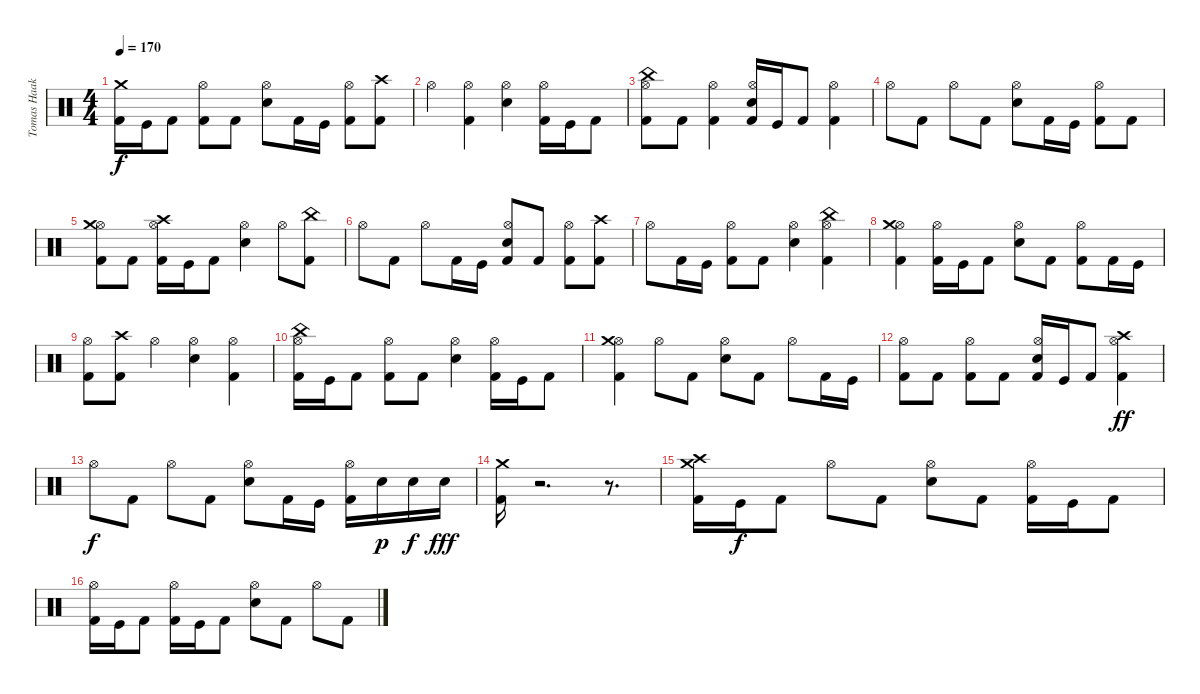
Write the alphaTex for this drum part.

\track ("Tomas Haake" "Tomas Haak") {instrument percussion}
\staff {score}
\articulation defaults
\ts (4 4)
\tempo 170
\clef neutral
\ks c
("Kick (hit) 2" "Crash medium (hit)").16{dy f} "Kick (hit)".16 "Kick (hit) 2".8 ("Kick (hit) 2" "Hi-Hat (open)").8 "Kick (hit) 2".8 ("Snare (hit) 2" "Hi-Hat (open)").8 "Kick (hit) 2".16 "Kick (hit)".16 ("Kick (hit) 2" "Hi-Hat (open)").8 ("Kick (hit) 2" "Crash high (hit)").8 |
"Hi-Hat (open)".4 ("Kick (hit) 2" "Hi-Hat (open)").4 ("Snare (hit) 2" "Hi-Hat (open)").4 ("Kick (hit) 2" "Hi-Hat (open)").16 "Kick (hit)".16 "Kick (hit) 2".8 |
("Kick (hit) 2" "Hi-Hat (open)" "China (hit)").8 "Kick (hit) 2".8 ("Kick (hit) 2" "Hi-Hat (open)").4 ("Kick (hit) 2" "Snare (hit) 2" "Hi-Hat (open)").16 "Kick (hit)".16 "Kick (hit) 2".8 ("Kick (hit) 2" "Hi-Hat (open)").4 |
"Hi-Hat (open)".8 "Kick (hit) 2".8 "Hi-Hat (open)".8 "Kick (hit) 2".8 ("Snare (hit) 2" "Hi-Hat (open)").8 "Kick (hit) 2".16 "Kick (hit)".16 ("Kick (hit) 2" "Hi-Hat (open)").8 "Kick (hit) 2".8 |
("Kick (hit) 2" "Hi-Hat (open)" "Crash medium (hit)").8 "Kick (hit) 2".8 ("Kick (hit) 2" "Hi-Hat (open)" "Crash high (hit)").16 "Kick (hit)".16 "Kick (hit) 2".8 ("Snare (hit) 2" "Hi-Hat (open)").4 "Hi-Hat (open)".8 ("Kick (hit) 2" "China (hit)").8 |
"Hi-Hat (open)".8 "Kick (hit) 2".8 "Hi-Hat (open)".8 "Kick (hit) 2".16 "Kick (hit)".16 ("Kick (hit) 2" "Snare (hit) 2" "Hi-Hat (open)").8 "Kick (hit) 2".8 ("Kick (hit) 2" "Hi-Hat (open)").8 ("Kick (hit) 2" "Crash high (hit)").8 |
"Hi-Hat (open)".8 "Kick (hit) 2".16 "Kick (hit)".16 ("Kick (hit) 2" "Hi-Hat (open)").8 "Kick (hit) 2".8 ("Snare (hit) 2" "Hi-Hat (open)").4 ("Kick (hit) 2" "Hi-Hat (open)" "China (hit)").4 |
("Kick (hit) 2" "Hi-Hat (open)" "Crash medium (hit)").4 ("Kick (hit) 2" "Hi-Hat (open)").16 "Kick (hit)".16 "Kick (hit) 2".8 ("Snare (hit) 2" "Hi-Hat (open)").8 "Kick (hit) 2".8 ("Kick (hit) 2" "Hi-Hat (open)").8 "Kick (hit) 2".16 "Kick (hit)".16 |
("Kick (hit) 2" "Hi-Hat (open)").8 ("Kick (hit) 2" "Crash high (hit)").8 "Hi-Hat (open)".4 ("Snare (hit) 2" "Hi-Hat (open)").4 ("Kick (hit) 2" "Hi-Hat (open)").4 |
("Kick (hit) 2" "Hi-Hat (open)" "China (hit)").16 "Kick (hit)".16 "Kick (hit) 2".8 ("Kick (hit) 2" "Hi-Hat (open)").8 "Kick (hit) 2".8 ("Snare (hit) 2" "Hi-Hat (open)").4 ("Kick (hit) 2" "Hi-Hat (open)").16 "Kick (hit)".16 "Kick (hit) 2".8 |
("Kick (hit) 2" "Hi-Hat (open)" "Crash medium (hit)").4 "Hi-Hat (open)".8 "Kick (hit) 2".8 ("Snare (hit) 2" "Hi-Hat (open)").8 "Kick (hit) 2".8 "Hi-Hat (open)".8 "Kick (hit) 2".16 "Kick (hit)".16 |
("Kick (hit) 2" "Hi-Hat (open)").8 "Kick (hit) 2".8 ("Kick (hit) 2" "Hi-Hat (open)").8 "Kick (hit) 2".8 ("Kick (hit) 2" "Snare (hit) 2" "Hi-Hat (open)").16 "Kick (hit)".16 "Kick (hit) 2".8 ("Kick (hit) 2" "Hi-Hat (open)" "Crash high (hit)").4{dy ff} |
"Hi-Hat (open)".8{dy f} "Kick (hit) 2".8 "Hi-Hat (open)".8 "Kick (hit) 2".8 ("Snare (hit) 2" "Hi-Hat (open)").8 "Kick (hit) 2".16 "Kick (hit)".16 ("Kick (hit) 2" "Hi-Hat (open)").16 "Snare (hit) 2".16{dy p} "Snare (hit) 2".16{dy f} "Snare (hit) 2".16{dy fff} |
("Kick (hit) 2" "Crash medium (hit)").16 r.2{d} r.8{d} |
("Kick (hit) 2" "Crash high (hit)" "Crash medium (hit)").16 "Kick (hit)".16{dy f} "Kick (hit) 2".8 "Hi-Hat (open)".8 "Kick (hit) 2".8 ("Snare (hit) 2" "Hi-Hat (open)").8 "Kick (hit) 2".8 ("Kick (hit) 2" "Hi-Hat (open)").16 "Kick (hit)".16 "Kick (hit) 2".8 |
("Kick (hit) 2" "Hi-Hat (open)").16 "Kick (hit)".16 "Kick (hit) 2".8 ("Kick (hit) 2" "Hi-Hat (open)").16 "Kick (hit)".16 "Kick (hit) 2".8 ("Snare (hit) 2" "Hi-Hat (open)").8 "Kick (hit) 2".8 "Hi-Hat (open)".8 "Kick (hit) 2".8
